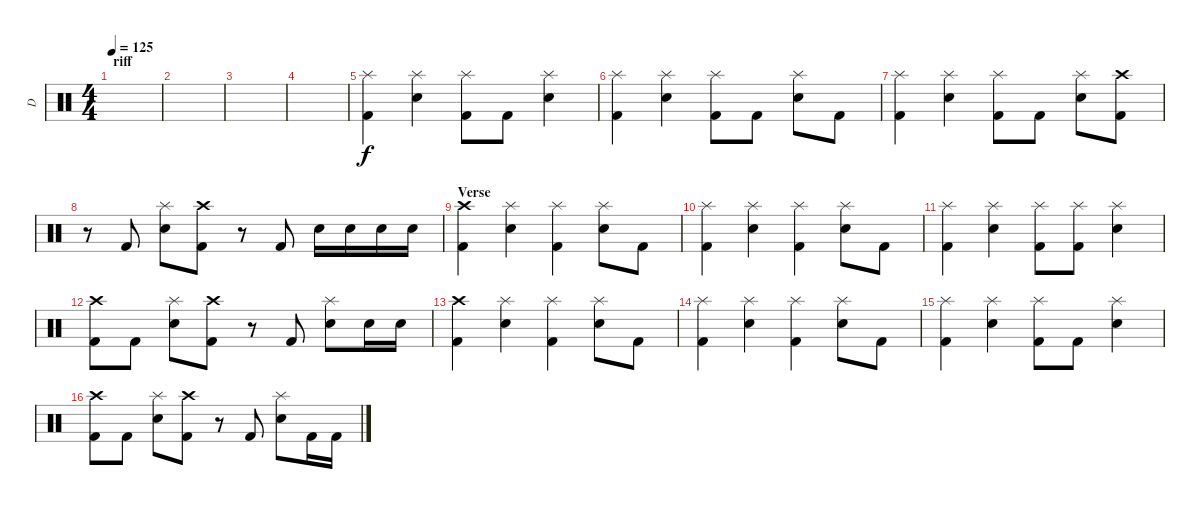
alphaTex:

\track ("D" "D") {instrument percussion}
\staff {score}
\articulation defaults
\ts (4 4)
\section ("" "riff")
\tempo 125
\clef neutral
\ks c
|
|
|
|
("Splash (hit)" "Kick (hit) 2").4 ("Splash (hit)" "Electric Snare (hit)").4 ("Splash (hit)" "Kick (hit) 2").8 "Kick (hit) 2".8 ("Splash (hit)" "Electric Snare (hit)").4 |
("Splash (hit)" "Kick (hit) 2").4 ("Splash (hit)" "Electric Snare (hit)").4 ("Splash (hit)" "Kick (hit) 2").8 "Kick (hit) 2".8 ("Splash (hit)" "Electric Snare (hit)").8 "Kick (hit) 2".8 |
("Splash (hit)" "Kick (hit) 2").4 ("Splash (hit)" "Electric Snare (hit)").4 ("Splash (hit)" "Kick (hit) 2").8 "Kick (hit) 2".8 ("Splash (hit)" "Electric Snare (hit)").8 ("Crash high (hit)" "Kick (hit) 2").8 |
r.8 "Kick (hit) 2".8 ("Splash (hit)" "Electric Snare (hit)").8 ("Crash high (hit)" "Kick (hit) 2").8 r.8 "Kick (hit) 2".8 "Electric Snare (hit)".16 "Electric Snare (hit)".16 "Electric Snare (hit)".16 "Electric Snare (hit)".16 |
\section ("" "Verse")
("Crash high (hit)" "Kick (hit) 2").4 ("Splash (hit)" "Electric Snare (hit)").4 ("Splash (hit)" "Kick (hit) 2").4 ("Splash (hit)" "Electric Snare (hit)").8 "Kick (hit) 2".8 |
("Splash (hit)" "Kick (hit) 2").4 ("Splash (hit)" "Electric Snare (hit)").4 ("Splash (hit)" "Kick (hit) 2").4 ("Splash (hit)" "Electric Snare (hit)").8 "Kick (hit) 2".8 |
("Splash (hit)" "Kick (hit) 2").4 ("Splash (hit)" "Electric Snare (hit)").4 ("Splash (hit)" "Kick (hit) 2").8 ("Splash (hit)" "Kick (hit) 2").8 ("Splash (hit)" "Electric Snare (hit)").4 |
("Crash high (hit)" "Kick (hit) 2").8 "Kick (hit) 2".8 ("Splash (hit)" "Electric Snare (hit)").8 ("Crash high (hit)" "Kick (hit) 2").8 r.8 "Kick (hit) 2".8 ("Splash (hit)" "Electric Snare (hit)").8 "Electric Snare (hit)".16 "Electric Snare (hit)".16 |
("Crash high (hit)" "Kick (hit) 2").4 ("Splash (hit)" "Electric Snare (hit)").4 ("Splash (hit)" "Kick (hit) 2").4 ("Splash (hit)" "Electric Snare (hit)").8 "Kick (hit) 2".8 |
("Splash (hit)" "Kick (hit) 2").4 ("Splash (hit)" "Electric Snare (hit)").4 ("Splash (hit)" "Kick (hit) 2").4 ("Splash (hit)" "Electric Snare (hit)").8 "Kick (hit) 2".8 |
("Splash (hit)" "Kick (hit) 2").4 ("Splash (hit)" "Electric Snare (hit)").4 ("Splash (hit)" "Kick (hit) 2").8 "Kick (hit) 2".8 ("Splash (hit)" "Electric Snare (hit)").4 |
("Crash high (hit)" "Kick (hit) 2").8 "Kick (hit) 2".8 ("Splash (hit)" "Electric Snare (hit)").8 ("Crash high (hit)" "Kick (hit) 2").8 r.8 "Kick (hit) 2".8 ("Splash (hit)" "Electric Snare (hit)").8 "Kick (hit) 2".16 "Kick (hit) 2".16
